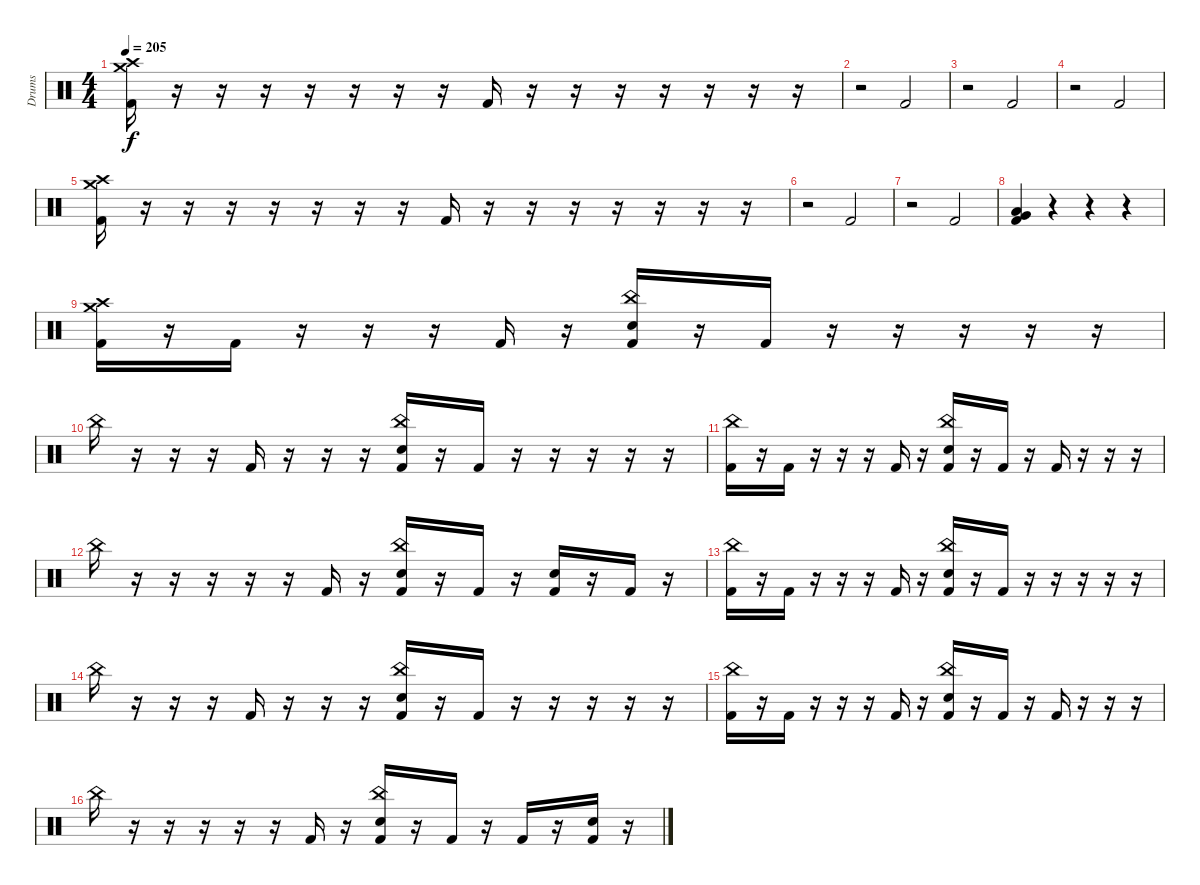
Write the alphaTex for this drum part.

\track ("Drums" "Drums") {instrument percussion}
\staff {score}
\articulation defaults
\ts (4 4)
\tempo 205
\clef neutral
\ks c
("Crash medium (hit)" "Crash high (hit)" "Kick (hit) 2").16{dy f} r.16 r.16 r.16 r.16 r.16 r.16 r.16 "Kick (hit) 2".16 r.16 r.16 r.16 r.16 r.16 r.16 r.16 |
r.2 "Kick (hit) 2".2 |
r.2 "Kick (hit) 2".2 |
r.2 "Kick (hit) 2".2 |
("Crash medium (hit)" "Crash high (hit)" "Kick (hit) 2").16 r.16 r.16 r.16 r.16 r.16 r.16 r.16 "Kick (hit) 2".16 r.16 r.16 r.16 r.16 r.16 r.16 r.16 |
r.2 "Kick (hit) 2".2 |
r.2 "Kick (hit) 2".2 |
("Very Low Tom (hit)" "Low Tom (hit)" "Kick (hit) 2").4 r.4 r.4 r.4 |
("Crash high (hit)" "Crash medium (hit)" "Kick (hit) 2").16 r.16 "Kick (hit) 2".16 r.16 r.16 r.16 "Kick (hit) 2".16 r.16 ("China (hit)" "Electric Snare (hit)" "Kick (hit) 2").16 r.16 "Kick (hit) 2".16 r.16 r.16 r.16 r.16 r.16 |
"China (hit)".16 r.16 r.16 r.16 "Kick (hit) 2".16 r.16 r.16 r.16 ("China (hit)" "Electric Snare (hit)" "Kick (hit) 2").16 r.16 "Kick (hit) 2".16 r.16 r.16 r.16 r.16 r.16 |
("China (hit)" "Kick (hit) 2").16 r.16 "Kick (hit) 2".16 r.16 r.16 r.16 "Kick (hit) 2".16 r.16 ("China (hit)" "Electric Snare (hit)" "Kick (hit) 2").16 r.16 "Kick (hit) 2".16 r.16 "Kick (hit) 2".16 r.16 r.16 r.16 |
"China (hit)".16 r.16 r.16 r.16 r.16 r.16 "Kick (hit) 2".16 r.16 ("China (hit)" "Electric Snare (hit)" "Kick (hit) 2").16 r.16 "Kick (hit) 2".16 r.16 ("Electric Snare (hit)" "Kick (hit) 2").16 r.16 "Kick (hit) 2".16{beam merge} r.16 |
("China (hit)" "Kick (hit) 2").16 r.16 "Kick (hit) 2".16 r.16 r.16 r.16 "Kick (hit) 2".16 r.16 ("China (hit)" "Electric Snare (hit)" "Kick (hit) 2").16 r.16 "Kick (hit) 2".16 r.16 r.16 r.16 r.16 r.16 |
"China (hit)".16 r.16 r.16 r.16 "Kick (hit) 2".16 r.16 r.16 r.16 ("China (hit)" "Electric Snare (hit)" "Kick (hit) 2").16 r.16 "Kick (hit) 2".16 r.16 r.16 r.16 r.16 r.16 |
("China (hit)" "Kick (hit) 2").16 r.16 "Kick (hit) 2".16 r.16 r.16 r.16 "Kick (hit) 2".16 r.16 ("China (hit)" "Electric Snare (hit)" "Kick (hit) 2").16 r.16 "Kick (hit) 2".16 r.16 "Kick (hit) 2".16 r.16 r.16 r.16 |
"China (hit)".16 r.16 r.16 r.16 r.16 r.16 "Kick (hit) 2".16 r.16 ("China (hit)" "Electric Snare (hit)" "Kick (hit) 2").16 r.16 "Kick (hit) 2".16 r.16 "Kick (hit) 2".16 r.16 ("Electric Snare (hit)" "Kick (hit) 2").16 r.16
